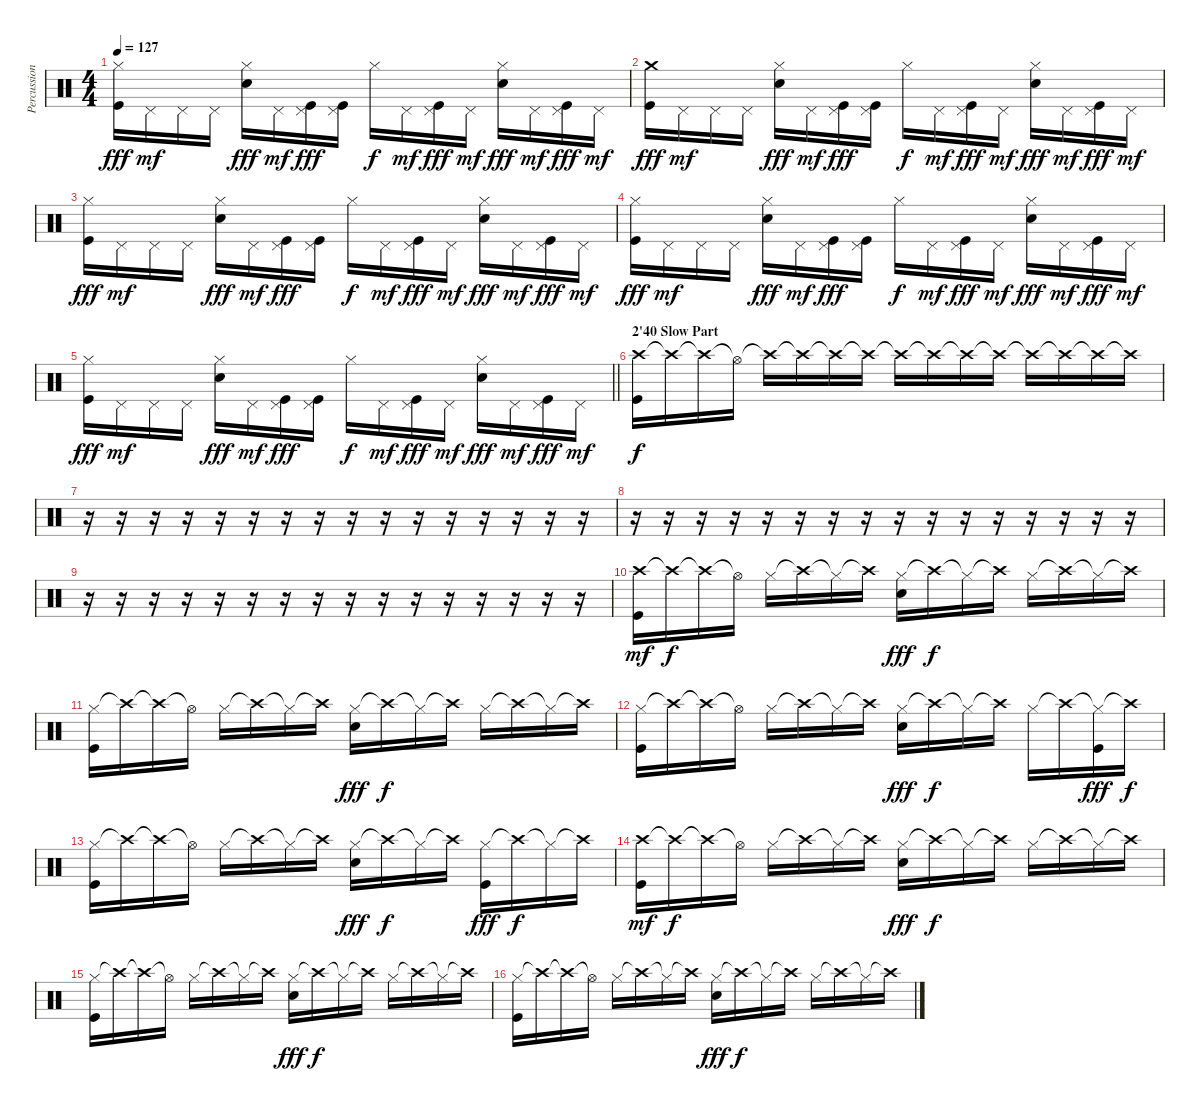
\track ("Percussions" "Percussion") {instrument percussion}
\staff {score}
\articulation defaults
\ts (4 4)
\tempo 127
\clef neutral
\ks c
("Hi-Hat (closed)" "Kick (hit)").16{dy fff} "Pedal Hi-Hat (hit)".16{dy mf} "Pedal Hi-Hat (hit)".16 "Pedal Hi-Hat (hit)".16 ("Hi-Hat (closed)" "Electric Snare (hit)").16{dy fff} "Pedal Hi-Hat (hit)".16{dy mf} ("Pedal Hi-Hat (hit)" "Kick (hit)").16{dy fff} ("Pedal Hi-Hat (hit)" "Kick (hit)").16 "Hi-Hat (closed)".16{dy f} "Pedal Hi-Hat (hit)".16{dy mf} ("Pedal Hi-Hat (hit)" "Kick (hit)").16{dy fff} "Pedal Hi-Hat (hit)".16{dy mf} ("Hi-Hat (closed)" "Electric Snare (hit)").16{dy fff} "Pedal Hi-Hat (hit)".16{dy mf} ("Pedal Hi-Hat (hit)" "Kick (hit)").16{dy fff} "Pedal Hi-Hat (hit)".16{dy mf} |
("Crash medium (hit)" "Kick (hit)").16{dy fff} "Pedal Hi-Hat (hit)".16{dy mf} "Pedal Hi-Hat (hit)".16 "Pedal Hi-Hat (hit)".16 ("Hi-Hat (closed)" "Electric Snare (hit)").16{dy fff} "Pedal Hi-Hat (hit)".16{dy mf} ("Pedal Hi-Hat (hit)" "Kick (hit)").16{dy fff} ("Pedal Hi-Hat (hit)" "Kick (hit)").16 "Hi-Hat (closed)".16{dy f} "Pedal Hi-Hat (hit)".16{dy mf} ("Pedal Hi-Hat (hit)" "Kick (hit)").16{dy fff} "Pedal Hi-Hat (hit)".16{dy mf} ("Hi-Hat (closed)" "Electric Snare (hit)").16{dy fff} "Pedal Hi-Hat (hit)".16{dy mf} ("Pedal Hi-Hat (hit)" "Kick (hit)").16{dy fff} "Pedal Hi-Hat (hit)".16{dy mf} |
("Hi-Hat (closed)" "Kick (hit)").16{dy fff} "Pedal Hi-Hat (hit)".16{dy mf} "Pedal Hi-Hat (hit)".16 "Pedal Hi-Hat (hit)".16 ("Hi-Hat (closed)" "Electric Snare (hit)").16{dy fff} "Pedal Hi-Hat (hit)".16{dy mf} ("Pedal Hi-Hat (hit)" "Kick (hit)").16{dy fff} ("Pedal Hi-Hat (hit)" "Kick (hit)").16 "Hi-Hat (closed)".16{dy f} "Pedal Hi-Hat (hit)".16{dy mf} ("Pedal Hi-Hat (hit)" "Kick (hit)").16{dy fff} "Pedal Hi-Hat (hit)".16{dy mf} ("Hi-Hat (closed)" "Electric Snare (hit)").16{dy fff} "Pedal Hi-Hat (hit)".16{dy mf} ("Pedal Hi-Hat (hit)" "Kick (hit)").16{dy fff} "Pedal Hi-Hat (hit)".16{dy mf} |
("Hi-Hat (closed)" "Kick (hit)").16{dy fff} "Pedal Hi-Hat (hit)".16{dy mf} "Pedal Hi-Hat (hit)".16 "Pedal Hi-Hat (hit)".16 ("Hi-Hat (closed)" "Electric Snare (hit)").16{dy fff} "Pedal Hi-Hat (hit)".16{dy mf} ("Pedal Hi-Hat (hit)" "Kick (hit)").16{dy fff} ("Pedal Hi-Hat (hit)" "Kick (hit)").16 "Hi-Hat (closed)".16{dy f} "Pedal Hi-Hat (hit)".16{dy mf} ("Pedal Hi-Hat (hit)" "Kick (hit)").16{dy fff} "Pedal Hi-Hat (hit)".16{dy mf} ("Hi-Hat (closed)" "Electric Snare (hit)").16{dy fff} "Pedal Hi-Hat (hit)".16{dy mf} ("Pedal Hi-Hat (hit)" "Kick (hit)").16{dy fff} "Pedal Hi-Hat (hit)".16{dy mf} |
\barLineRight lightlight
("Hi-Hat (closed)" "Kick (hit)").16{dy fff} "Pedal Hi-Hat (hit)".16{dy mf} "Pedal Hi-Hat (hit)".16 "Pedal Hi-Hat (hit)".16 ("Hi-Hat (closed)" "Electric Snare (hit)").16{dy fff} "Pedal Hi-Hat (hit)".16{dy mf} ("Pedal Hi-Hat (hit)" "Kick (hit)").16{dy fff} ("Pedal Hi-Hat (hit)" "Kick (hit)").16 "Hi-Hat (closed)".16{dy f} "Pedal Hi-Hat (hit)".16{dy mf} ("Pedal Hi-Hat (hit)" "Kick (hit)").16{dy fff} "Pedal Hi-Hat (hit)".16{dy mf} ("Hi-Hat (closed)" "Electric Snare (hit)").16{dy fff} "Pedal Hi-Hat (hit)".16{dy mf} ("Pedal Hi-Hat (hit)" "Kick (hit)").16{dy fff} "Pedal Hi-Hat (hit)".16{dy mf} |
\section ("" "2'40 Slow Part")
("Crash high (hit)" "Kick (hit)").16{dy f} "Crash high (hit)"{t}.16 "Crash high (hit)"{t}.16 "Hi-Hat (open)"{t}.16 "Crash high (hit)"{t}.16 "Crash high (hit)"{t}.16 "Crash high (hit)"{t}.16 "Crash high (hit)"{t}.16 "Crash high (hit)"{t}.16 "Crash high (hit)"{t}.16 "Crash high (hit)"{t}.16 "Crash high (hit)"{t}.16 "Crash high (hit)"{t}.16 "Crash high (hit)"{t}.16 "Crash high (hit)"{t}.16 "Crash high (hit)"{t}.16 |
r.16 r.16 r.16 r.16 r.16 r.16 r.16 r.16 r.16 r.16 r.16 r.16 r.16 r.16 r.16 r.16 |
r.16 r.16 r.16 r.16 r.16 r.16 r.16 r.16 r.16 r.16 r.16 r.16 r.16 r.16 r.16 r.16 |
r.16 r.16 r.16 r.16 r.16 r.16 r.16 r.16 r.16 r.16 r.16 r.16 r.16 r.16 r.16 r.16 |
("Crash high (hit)" "Kick (hit)").16{dy mf} "Crash high (hit)"{t}.16{dy f} "Crash high (hit)"{t}.16 "Hi-Hat (open)"{t}.16 "Hi-Hat (closed)".16 "Crash high (hit)"{t}.16 "Hi-Hat (closed)"{t}.16 "Crash high (hit)"{t}.16 ("Hi-Hat (closed)" "Electric Snare (hit)").16{dy fff} "Crash high (hit)"{t}.16{dy f} "Hi-Hat (closed)"{t}.16 "Crash high (hit)"{t}.16 "Hi-Hat (closed)".16 "Crash high (hit)"{t}.16 "Hi-Hat (closed)"{t}.16 "Crash high (hit)"{t}.16 |
("Hi-Hat (closed)" "Kick (hit)").16 "Crash high (hit)"{t}.16 "Crash high (hit)"{t}.16 "Hi-Hat (open)"{t}.16 "Hi-Hat (closed)".16 "Crash high (hit)"{t}.16 "Hi-Hat (closed)"{t}.16 "Crash high (hit)"{t}.16 ("Hi-Hat (closed)" "Electric Snare (hit)").16{dy fff} "Crash high (hit)"{t}.16{dy f} "Hi-Hat (closed)"{t}.16 "Crash high (hit)"{t}.16 "Hi-Hat (closed)".16 "Crash high (hit)"{t}.16 "Hi-Hat (closed)"{t}.16 "Crash high (hit)"{t}.16 |
("Hi-Hat (closed)" "Kick (hit)").16 "Crash high (hit)"{t}.16 "Crash high (hit)"{t}.16 "Hi-Hat (open)"{t}.16 "Hi-Hat (closed)".16 "Crash high (hit)"{t}.16 "Hi-Hat (closed)"{t}.16 "Crash high (hit)"{t}.16 ("Hi-Hat (closed)" "Electric Snare (hit)").16{dy fff} "Crash high (hit)"{t}.16{dy f} "Hi-Hat (closed)"{t}.16 "Crash high (hit)"{t}.16 "Hi-Hat (closed)".16 "Crash high (hit)"{t}.16 ("Hi-Hat (closed)"{t} "Kick (hit)").16{dy fff} "Crash high (hit)"{t}.16{dy f} |
("Hi-Hat (closed)" "Kick (hit)").16 "Crash high (hit)"{t}.16 "Crash high (hit)"{t}.16 "Hi-Hat (open)"{t}.16 "Hi-Hat (closed)".16 "Crash high (hit)"{t}.16 "Hi-Hat (closed)"{t}.16 "Crash high (hit)"{t}.16 ("Hi-Hat (closed)" "Electric Snare (hit)").16{dy fff} "Crash high (hit)"{t}.16{dy f} "Hi-Hat (closed)"{t}.16 "Crash high (hit)"{t}.16 ("Hi-Hat (closed)" "Kick (hit)").16{dy fff} "Crash high (hit)"{t}.16{dy f} "Hi-Hat (closed)"{t}.16 "Crash high (hit)"{t}.16 |
("Crash high (hit)" "Kick (hit)").16{dy mf} "Crash high (hit)"{t}.16{dy f} "Crash high (hit)"{t}.16 "Hi-Hat (open)"{t}.16 "Hi-Hat (closed)".16 "Crash high (hit)"{t}.16 "Hi-Hat (closed)"{t}.16 "Crash high (hit)"{t}.16 ("Hi-Hat (closed)" "Electric Snare (hit)").16{dy fff} "Crash high (hit)"{t}.16{dy f} "Hi-Hat (closed)"{t}.16 "Crash high (hit)"{t}.16 "Hi-Hat (closed)".16 "Crash high (hit)"{t}.16 "Hi-Hat (closed)"{t}.16 "Crash high (hit)"{t}.16 |
("Hi-Hat (closed)" "Kick (hit)").16 "Crash high (hit)"{t}.16 "Crash high (hit)"{t}.16 "Hi-Hat (open)"{t}.16 "Hi-Hat (closed)".16 "Crash high (hit)"{t}.16 "Hi-Hat (closed)"{t}.16 "Crash high (hit)"{t}.16 ("Hi-Hat (closed)" "Electric Snare (hit)").16{dy fff} "Crash high (hit)"{t}.16{dy f} "Hi-Hat (closed)"{t}.16 "Crash high (hit)"{t}.16 "Hi-Hat (closed)".16 "Crash high (hit)"{t}.16 "Hi-Hat (closed)"{t}.16 "Crash high (hit)"{t}.16 |
("Hi-Hat (closed)" "Kick (hit)").16 "Crash high (hit)"{t}.16 "Crash high (hit)"{t}.16 "Hi-Hat (open)"{t}.16 "Hi-Hat (closed)".16 "Crash high (hit)"{t}.16 "Hi-Hat (closed)"{t}.16 "Crash high (hit)"{t}.16 ("Hi-Hat (closed)" "Electric Snare (hit)").16{dy fff} "Crash high (hit)"{t}.16{dy f} "Hi-Hat (closed)"{t}.16 "Crash high (hit)"{t}.16 "Hi-Hat (closed)".16 "Crash high (hit)"{t}.16 "Hi-Hat (closed)"{t}.16 "Crash high (hit)"{t}.16
